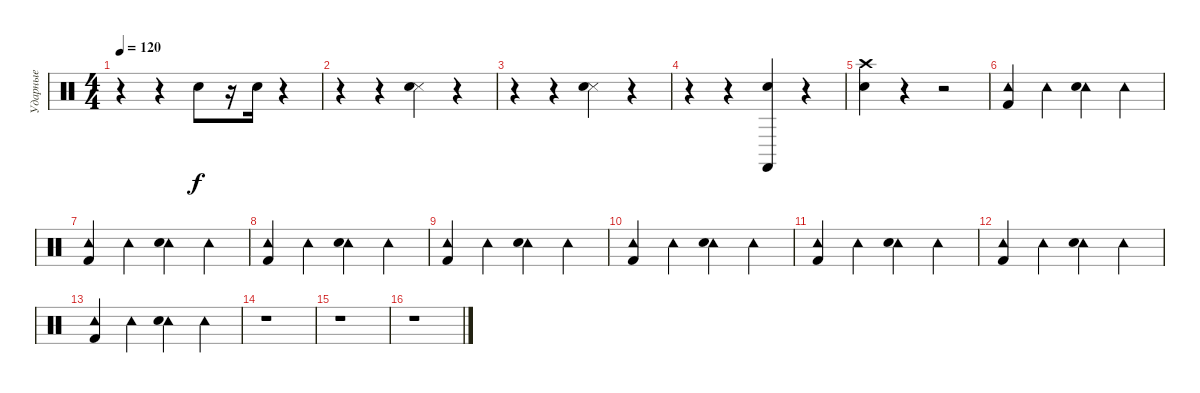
\track ("Ударные" "Ударные") {instrument percussion}
\staff {score}
\articulation defaults
\ts (4 4)
\tempo 120
\clef neutral
\ks c
r.4{dy f} r.4 "Metronome (bell)".8 r.16 "Metronome (bell)".16 r.4 |
r.4 r.4 ("Metronome (hit)" "Metronome (bell)").4 r.4 |
r.4 r.4 ("Metronome (hit)" "Metronome (bell)").4 r.4 |
r.4 r.4 ("Castanets (hit)" "Metronome (bell)").4 r.4 |
("Snare (hit) 2" "Crash high (hit)").4 r.4 r.2 |
("Tambourine (hit)" "Kick (hit) 2").4 "Tambourine (hit)".4 ("Tambourine (hit)" "Electric Snare (hit)").4 "Tambourine (hit)".4 |
("Tambourine (hit)" "Kick (hit) 2").4 "Tambourine (hit)".4 ("Tambourine (hit)" "Electric Snare (hit)").4 "Tambourine (hit)".4 |
("Tambourine (hit)" "Kick (hit) 2").4 "Tambourine (hit)".4 ("Tambourine (hit)" "Electric Snare (hit)").4 "Tambourine (hit)".4 |
("Tambourine (hit)" "Kick (hit) 2").4 "Tambourine (hit)".4 ("Tambourine (hit)" "Electric Snare (hit)").4 "Tambourine (hit)".4 |
("Tambourine (hit)" "Kick (hit) 2").4 "Tambourine (hit)".4 ("Tambourine (hit)" "Electric Snare (hit)").4 "Tambourine (hit)".4 |
("Tambourine (hit)" "Kick (hit) 2").4 "Tambourine (hit)".4 ("Tambourine (hit)" "Electric Snare (hit)").4 "Tambourine (hit)".4 |
("Tambourine (hit)" "Kick (hit) 2").4 "Tambourine (hit)".4 ("Tambourine (hit)" "Electric Snare (hit)").4 "Tambourine (hit)".4 |
("Tambourine (hit)" "Kick (hit) 2").4 "Tambourine (hit)".4 ("Tambourine (hit)" "Electric Snare (hit)").4 "Tambourine (hit)".4 |
r.1 |
r.1 |
r.1
